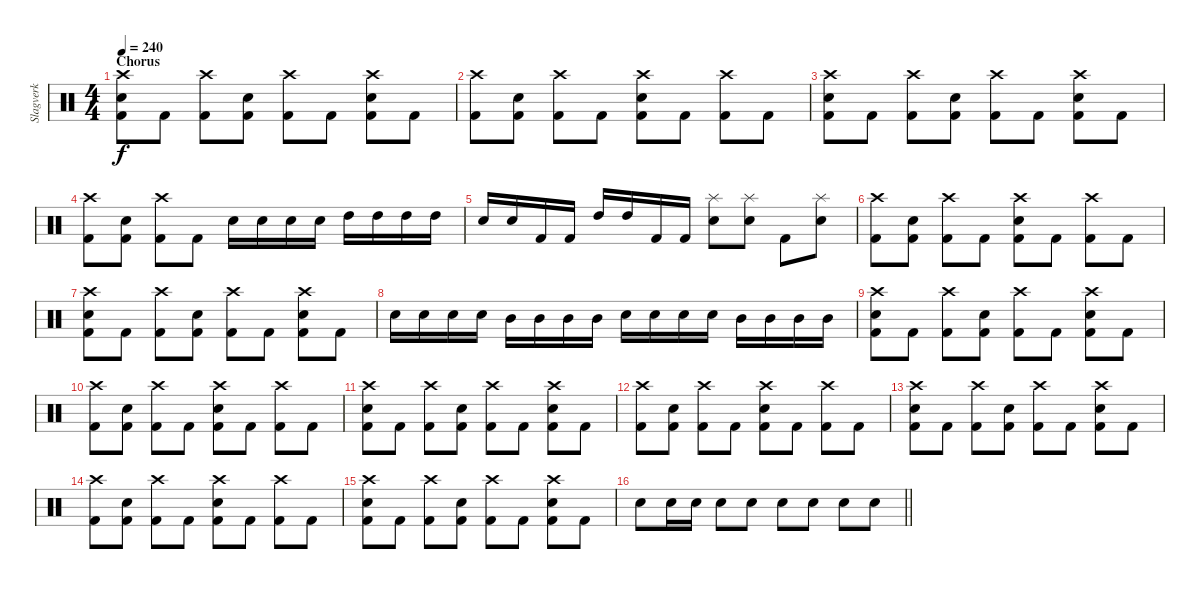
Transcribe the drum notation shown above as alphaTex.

\track ("Slagverk" "Slagverk") {instrument percussion}
\staff {score}
\articulation defaults
\ts (4 4)
\section ("" "Chorus")
\tempo 240
\clef neutral
\ks c
("Crash high (hit)" "Electric Snare (hit)" "Kick (hit) 2").8{dy f} "Kick (hit) 2".8 ("Crash high (hit)" "Kick (hit) 2").8 ("Electric Snare (hit)" "Kick (hit) 2").8 ("Crash high (hit)" "Kick (hit) 2").8 "Kick (hit) 2".8 ("Crash high (hit)" "Electric Snare (hit)" "Kick (hit) 2").8 "Kick (hit) 2".8 |
("Crash high (hit)" "Kick (hit) 2").8 ("Electric Snare (hit)" "Kick (hit) 2").8 ("Crash high (hit)" "Kick (hit) 2").8 "Kick (hit) 2".8 ("Crash high (hit)" "Electric Snare (hit)" "Kick (hit) 2").8 "Kick (hit) 2".8 ("Crash high (hit)" "Kick (hit) 2").8 "Kick (hit) 2".8 |
("Crash high (hit)" "Electric Snare (hit)" "Kick (hit) 2").8 "Kick (hit) 2".8 ("Crash high (hit)" "Kick (hit) 2").8 ("Electric Snare (hit)" "Kick (hit) 2").8 ("Crash high (hit)" "Kick (hit) 2").8 "Kick (hit) 2".8 ("Crash high (hit)" "Electric Snare (hit)" "Kick (hit) 2").8 "Kick (hit) 2".8 |
("Crash high (hit)" "Kick (hit) 2").8 ("Electric Snare (hit)" "Kick (hit) 2").8 ("Crash high (hit)" "Kick (hit) 2").8 "Kick (hit) 2".8 "Electric Snare (hit)".16 "Electric Snare (hit)".16 "Electric Snare (hit)".16 "Electric Snare (hit)".16 "High Tom (hit)".16 "High Tom (hit)".16 "High Tom (hit)".16 "High Tom (hit)".16 |
"Electric Snare (hit)".16 "Electric Snare (hit)".16 "Kick (hit) 2".16 "Kick (hit) 2".16 "High Tom (hit)".16 "High Tom (hit)".16 "Kick (hit) 2".16 "Kick (hit) 2".16 ("Splash (hit)" "Electric Snare (hit)").8 ("Splash (hit)" "Electric Snare (hit)").8 "Kick (hit) 2".8 ("Splash (hit)" "Electric Snare (hit)").8 |
("Crash high (hit)" "Kick (hit) 2").8 ("Electric Snare (hit)" "Kick (hit) 2").8 ("Crash high (hit)" "Kick (hit) 2").8 "Kick (hit) 2".8 ("Crash high (hit)" "Electric Snare (hit)" "Kick (hit) 2").8 "Kick (hit) 2".8 ("Crash high (hit)" "Kick (hit) 2").8 "Kick (hit) 2".8 |
("Crash high (hit)" "Electric Snare (hit)" "Kick (hit) 2").8 "Kick (hit) 2".8 ("Crash high (hit)" "Kick (hit) 2").8 ("Electric Snare (hit)" "Kick (hit) 2").8 ("Crash high (hit)" "Kick (hit) 2").8 "Kick (hit) 2".8 ("Crash high (hit)" "Electric Snare (hit)" "Kick (hit) 2").8 "Kick (hit) 2".8 |
"Electric Snare (hit)".16 "Electric Snare (hit)".16 "Electric Snare (hit)".16 "Electric Snare (hit)".16 "Mid Tom (hit)".16 "Mid Tom (hit)".16 "Mid Tom (hit)".16 "Mid Tom (hit)".16 "Electric Snare (hit)".16 "Electric Snare (hit)".16 "Electric Snare (hit)".16 "Electric Snare (hit)".16 "Mid Tom (hit)".16 "Mid Tom (hit)".16 "Mid Tom (hit)".16 "Mid Tom (hit)".16 |
("Crash high (hit)" "Electric Snare (hit)" "Kick (hit) 2").8 "Kick (hit) 2".8 ("Crash high (hit)" "Kick (hit) 2").8 ("Electric Snare (hit)" "Kick (hit) 2").8 ("Crash high (hit)" "Kick (hit) 2").8 "Kick (hit) 2".8 ("Crash high (hit)" "Electric Snare (hit)" "Kick (hit) 2").8 "Kick (hit) 2".8 |
("Crash high (hit)" "Kick (hit) 2").8 ("Electric Snare (hit)" "Kick (hit) 2").8 ("Crash high (hit)" "Kick (hit) 2").8 "Kick (hit) 2".8 ("Crash high (hit)" "Electric Snare (hit)" "Kick (hit) 2").8 "Kick (hit) 2".8 ("Crash high (hit)" "Kick (hit) 2").8 "Kick (hit) 2".8 |
("Crash high (hit)" "Electric Snare (hit)" "Kick (hit) 2").8 "Kick (hit) 2".8 ("Crash high (hit)" "Kick (hit) 2").8 ("Electric Snare (hit)" "Kick (hit) 2").8 ("Crash high (hit)" "Kick (hit) 2").8 "Kick (hit) 2".8 ("Crash high (hit)" "Electric Snare (hit)" "Kick (hit) 2").8 "Kick (hit) 2".8 |
("Crash high (hit)" "Kick (hit) 2").8 ("Electric Snare (hit)" "Kick (hit) 2").8 ("Crash high (hit)" "Kick (hit) 2").8 "Kick (hit) 2".8 ("Crash high (hit)" "Electric Snare (hit)" "Kick (hit) 2").8 "Kick (hit) 2".8 ("Crash high (hit)" "Kick (hit) 2").8 "Kick (hit) 2".8 |
("Crash high (hit)" "Electric Snare (hit)" "Kick (hit) 2").8 "Kick (hit) 2".8 ("Crash high (hit)" "Kick (hit) 2").8 ("Electric Snare (hit)" "Kick (hit) 2").8 ("Crash high (hit)" "Kick (hit) 2").8 "Kick (hit) 2".8 ("Crash high (hit)" "Electric Snare (hit)" "Kick (hit) 2").8 "Kick (hit) 2".8 |
("Crash high (hit)" "Kick (hit) 2").8 ("Electric Snare (hit)" "Kick (hit) 2").8 ("Crash high (hit)" "Kick (hit) 2").8 "Kick (hit) 2".8 ("Crash high (hit)" "Electric Snare (hit)" "Kick (hit) 2").8 "Kick (hit) 2".8 ("Crash high (hit)" "Kick (hit) 2").8 "Kick (hit) 2".8 |
("Crash high (hit)" "Electric Snare (hit)" "Kick (hit) 2").8 "Kick (hit) 2".8 ("Crash high (hit)" "Kick (hit) 2").8 ("Electric Snare (hit)" "Kick (hit) 2").8 ("Crash high (hit)" "Kick (hit) 2").8 "Kick (hit) 2".8 ("Crash high (hit)" "Electric Snare (hit)" "Kick (hit) 2").8 "Kick (hit) 2".8 |
\barLineRight lightlight "Electric Snare (hit)".8 "Electric Snare (hit)".16 "Electric Snare (hit)".16 "Electric Snare (hit)".8 "Electric Snare (hit)".8 "Electric Snare (hit)".8 "Electric Snare (hit)".8 "Electric Snare (hit)".8 "Electric Snare (hit)".8
